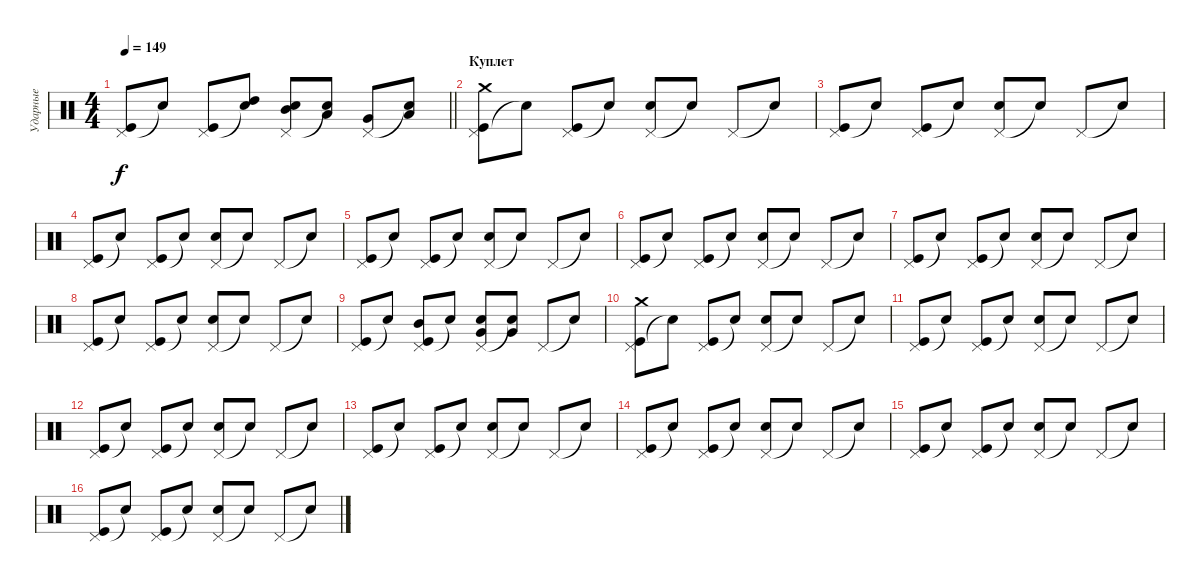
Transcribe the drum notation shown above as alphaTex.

\track ("Ударные" "Ударные") {instrument percussion}
\staff {score}
\articulation defaults
\ts (4 4)
\tempo 149
\clef neutral
\barLineRight lightlight
\ks c
("Pedal Hi-Hat (hit)" "Kick (hit)").8{dy f} "Snare (hit)"{t}.8 ("Pedal Hi-Hat (hit)" "Kick (hit)").8 ("Snare (hit)"{t} "High Tom (hit)").8 ("Pedal Hi-Hat (hit)" "Snare (hit) 2" "Mid Tom (hit)").8 ("Snare (hit)"{t} "Low Tom (hit)").8 ("Pedal Hi-Hat (hit)" "Very Low Tom (hit)").8 ("Snare (hit)"{t} "Low Floor Tom (hit)").8 |
\section ("" "Куплет")
("Pedal Hi-Hat (hit)" "Kick (hit)" "Crash medium (hit)").8 "Snare (hit)"{t}.8 ("Pedal Hi-Hat (hit)" "Kick (hit)").8 "Snare (hit)"{t}.8 ("Pedal Hi-Hat (hit)" "Snare (hit) 2").8 "Snare (hit)"{t}.8 "Pedal Hi-Hat (hit)".8 "Snare (hit)"{t}.8 |
("Pedal Hi-Hat (hit)" "Kick (hit)").8 "Snare (hit)"{t}.8 ("Pedal Hi-Hat (hit)" "Kick (hit)").8 "Snare (hit)"{t}.8 ("Pedal Hi-Hat (hit)" "Snare (hit) 2").8 "Snare (hit)"{t}.8 "Pedal Hi-Hat (hit)".8 "Snare (hit)"{t}.8 |
("Pedal Hi-Hat (hit)" "Kick (hit)").8 "Snare (hit)"{t}.8 ("Pedal Hi-Hat (hit)" "Kick (hit)").8 "Snare (hit)"{t}.8 ("Pedal Hi-Hat (hit)" "Snare (hit) 2").8 "Snare (hit)"{t}.8 "Pedal Hi-Hat (hit)".8 "Snare (hit)"{t}.8 |
("Pedal Hi-Hat (hit)" "Kick (hit)").8 "Snare (hit)"{t}.8 ("Pedal Hi-Hat (hit)" "Kick (hit)").8 "Snare (hit)"{t}.8 ("Pedal Hi-Hat (hit)" "Snare (hit) 2").8 "Snare (hit)"{t}.8 "Pedal Hi-Hat (hit)".8 "Snare (hit)"{t}.8 |
("Pedal Hi-Hat (hit)" "Kick (hit)").8 "Snare (hit)"{t}.8 ("Pedal Hi-Hat (hit)" "Kick (hit)").8 "Snare (hit)"{t}.8 ("Pedal Hi-Hat (hit)" "Snare (hit) 2").8 "Snare (hit)"{t}.8 "Pedal Hi-Hat (hit)".8 "Snare (hit)"{t}.8 |
("Pedal Hi-Hat (hit)" "Kick (hit)").8 "Snare (hit)"{t}.8 ("Pedal Hi-Hat (hit)" "Kick (hit)").8 "Snare (hit)"{t}.8 ("Pedal Hi-Hat (hit)" "Snare (hit) 2").8 "Snare (hit)"{t}.8 "Pedal Hi-Hat (hit)".8 "Snare (hit)"{t}.8 |
("Pedal Hi-Hat (hit)" "Kick (hit)").8 "Snare (hit)"{t}.8 ("Pedal Hi-Hat (hit)" "Kick (hit)").8 "Snare (hit)"{t}.8 ("Pedal Hi-Hat (hit)" "Snare (hit) 2").8 "Snare (hit)"{t}.8 "Pedal Hi-Hat (hit)".8 "Snare (hit)"{t}.8 |
("Pedal Hi-Hat (hit)" "Kick (hit)").8 "Snare (hit)"{t}.8 ("Pedal Hi-Hat (hit)" "Kick (hit)" "Mid Tom (hit)").8 "Snare (hit)"{t}.8 ("Pedal Hi-Hat (hit)" "Snare (hit) 2" "Very Low Tom (hit)").8 ("Snare (hit)"{t} "Very Low Tom (hit)").8 "Pedal Hi-Hat (hit)".8 "Snare (hit)"{t}.8 |
("Pedal Hi-Hat (hit)" "Kick (hit)" "Crash medium (hit)").8 "Snare (hit)"{t}.8 ("Pedal Hi-Hat (hit)" "Kick (hit)").8 "Snare (hit)"{t}.8 ("Pedal Hi-Hat (hit)" "Snare (hit) 2").8 "Snare (hit)"{t}.8 "Pedal Hi-Hat (hit)".8 "Snare (hit)"{t}.8 |
("Pedal Hi-Hat (hit)" "Kick (hit)").8 "Snare (hit)"{t}.8 ("Pedal Hi-Hat (hit)" "Kick (hit)").8 "Snare (hit)"{t}.8 ("Pedal Hi-Hat (hit)" "Snare (hit) 2").8 "Snare (hit)"{t}.8 "Pedal Hi-Hat (hit)".8 "Snare (hit)"{t}.8 |
("Pedal Hi-Hat (hit)" "Kick (hit)").8 "Snare (hit)"{t}.8 ("Pedal Hi-Hat (hit)" "Kick (hit)").8 "Snare (hit)"{t}.8 ("Pedal Hi-Hat (hit)" "Snare (hit) 2").8 "Snare (hit)"{t}.8 "Pedal Hi-Hat (hit)".8 "Snare (hit)"{t}.8 |
("Pedal Hi-Hat (hit)" "Kick (hit)").8 "Snare (hit)"{t}.8 ("Pedal Hi-Hat (hit)" "Kick (hit)").8 "Snare (hit)"{t}.8 ("Pedal Hi-Hat (hit)" "Snare (hit) 2").8 "Snare (hit)"{t}.8 "Pedal Hi-Hat (hit)".8 "Snare (hit)"{t}.8 |
("Pedal Hi-Hat (hit)" "Kick (hit)").8 "Snare (hit)"{t}.8 ("Pedal Hi-Hat (hit)" "Kick (hit)").8 "Snare (hit)"{t}.8 ("Pedal Hi-Hat (hit)" "Snare (hit) 2").8 "Snare (hit)"{t}.8 "Pedal Hi-Hat (hit)".8 "Snare (hit)"{t}.8 |
("Pedal Hi-Hat (hit)" "Kick (hit)").8 "Snare (hit)"{t}.8 ("Pedal Hi-Hat (hit)" "Kick (hit)").8 "Snare (hit)"{t}.8 ("Pedal Hi-Hat (hit)" "Snare (hit) 2").8 "Snare (hit)"{t}.8 "Pedal Hi-Hat (hit)".8 "Snare (hit)"{t}.8 |
("Pedal Hi-Hat (hit)" "Kick (hit)").8 "Snare (hit)"{t}.8 ("Pedal Hi-Hat (hit)" "Kick (hit)").8 "Snare (hit)"{t}.8 ("Pedal Hi-Hat (hit)" "Snare (hit) 2").8 "Snare (hit)"{t}.8 "Pedal Hi-Hat (hit)".8 "Snare (hit)"{t}.8
